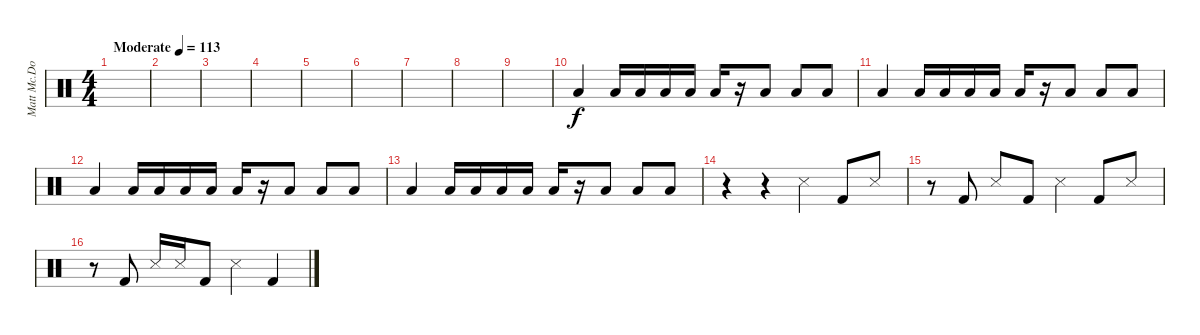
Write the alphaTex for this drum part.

\track ("Matt Mc.Donough" "Matt Mc.Do") {instrument percussion}
\staff {score}
\articulation defaults
\ts (4 4)
\tempo (113 "Moderate")
\clef neutral
\ks c
|
|
|
|
|
|
|
|
|
"Low Floor Tom (hit)".4{volume 5} "Low Floor Tom (hit)".16 "Low Floor Tom (hit)".16 "Low Floor Tom (hit)".16 "Low Floor Tom (hit)".16 "Low Floor Tom (hit)".16 r.16 "Low Floor Tom (hit)".8 "Low Floor Tom (hit)".8 "Low Floor Tom (hit)".8 |
"Low Floor Tom (hit)".4 "Low Floor Tom (hit)".16 "Low Floor Tom (hit)".16 "Low Floor Tom (hit)".16 "Low Floor Tom (hit)".16 "Low Floor Tom (hit)".16 r.16 "Low Floor Tom (hit)".8 "Low Floor Tom (hit)".8 "Low Floor Tom (hit)".8 |
"Low Floor Tom (hit)".4 "Low Floor Tom (hit)".16 "Low Floor Tom (hit)".16 "Low Floor Tom (hit)".16 "Low Floor Tom (hit)".16 "Low Floor Tom (hit)".16 r.16 "Low Floor Tom (hit)".8 "Low Floor Tom (hit)".8 "Low Floor Tom (hit)".8 |
"Low Floor Tom (hit)".4 "Low Floor Tom (hit)".16 "Low Floor Tom (hit)".16 "Low Floor Tom (hit)".16 "Low Floor Tom (hit)".16 "Low Floor Tom (hit)".16 r.16 "Low Floor Tom (hit)".8 "Low Floor Tom (hit)".8 "Low Floor Tom (hit)".8 |
r.4{volume 16} r.4 "Snare (side stick) 3".4 "Kick (hit) 2".8 "Snare (side stick) 3".8 |
r.8 "Kick (hit) 2".8 "Snare (side stick) 3".8 "Kick (hit) 2".8 "Snare (side stick) 3".4 "Kick (hit) 2".8 "Snare (side stick) 3".8 |
r.8 "Kick (hit) 2".8 "Snare (side stick) 3".16 "Snare (side stick) 3".16 "Kick (hit) 2".8 "Snare (side stick) 3".4 "Kick (hit) 2".4
